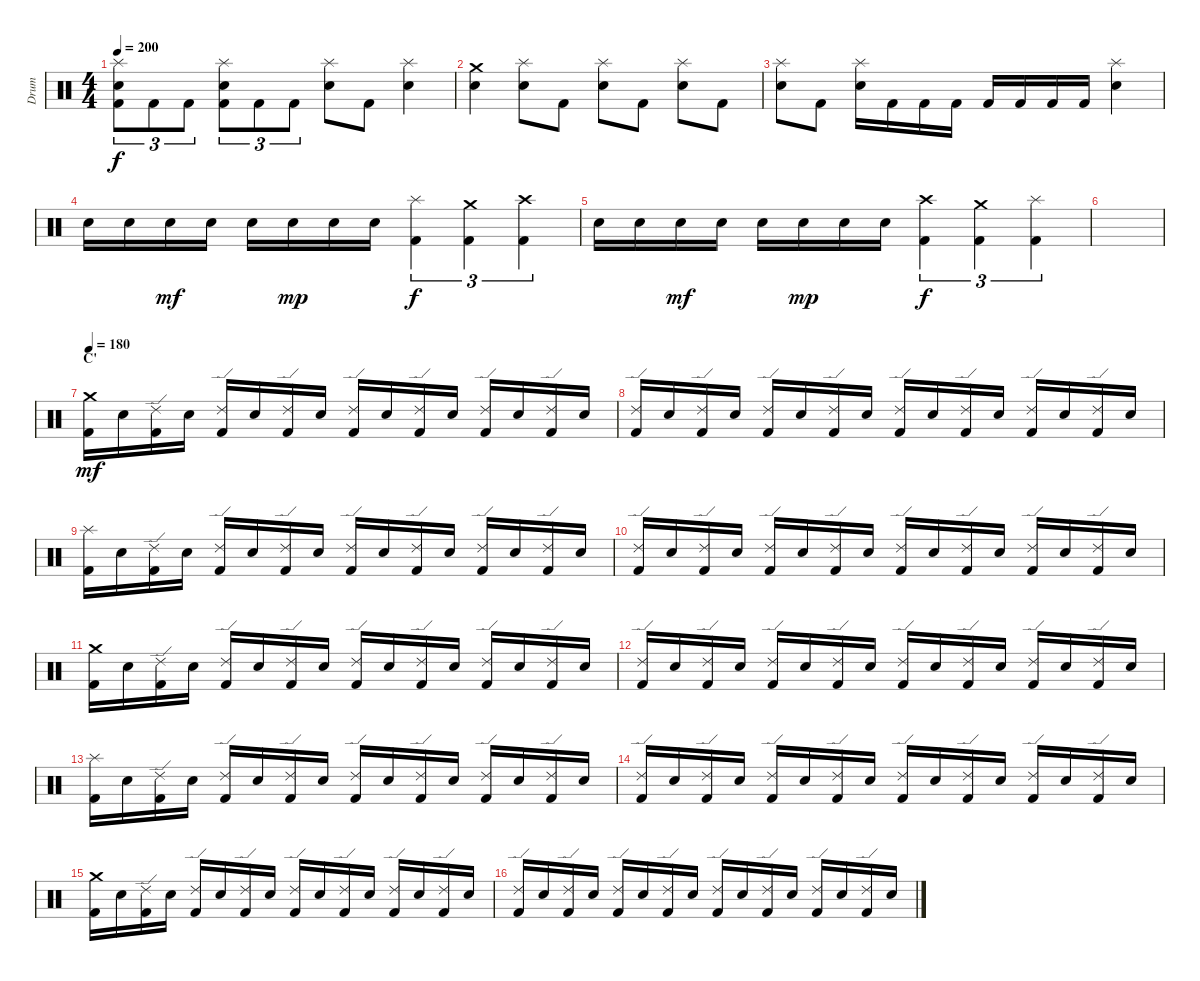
\track ("Drum" "Drum") {instrument percussion}
\staff {score}
\articulation defaults
\ts (4 4)
\tempo 200
\clef neutral
\ks c
("Splash (hit)" "Electric Snare (hit)" "Kick (hit) 2").8{tu (3 2) dy f} "Kick (hit) 2".8{tu (3 2)} "Kick (hit) 2".8{tu (3 2)} ("Splash (hit)" "Electric Snare (hit)" "Kick (hit) 2").8{tu (3 2)} "Kick (hit) 2".8{tu (3 2)} "Kick (hit) 2".8{tu (3 2)} ("Splash (hit)" "Electric Snare (hit)").8 "Kick (hit) 2".8 ("Splash (hit)" "Electric Snare (hit)").4 |
("Crash medium (hit)" "Electric Snare (hit)").4 ("Splash (hit)" "Electric Snare (hit)").8 "Kick (hit) 2".8 ("Splash (hit)" "Electric Snare (hit)").8 "Kick (hit) 2".8 ("Splash (hit)" "Electric Snare (hit)").8 "Kick (hit) 2".8 |
("Splash (hit)" "Electric Snare (hit)").8 "Kick (hit) 2".8 ("Splash (hit)" "Electric Snare (hit)").16 "Kick (hit) 2".16 "Kick (hit) 2".16 "Kick (hit) 2".16 "Kick (hit) 2".16 "Kick (hit) 2".16 "Kick (hit) 2".16 "Kick (hit) 2".16 ("Splash (hit)" "Electric Snare (hit)").4 |
"Electric Snare (hit)".16 "Electric Snare (hit)".16 "Electric Snare (hit)".16{dy mf} "Electric Snare (hit)".16 "Electric Snare (hit)".16 "Electric Snare (hit)".16{dy mp} "Electric Snare (hit)".16 "Electric Snare (hit)".16 ("Splash (hit)" "Kick (hit) 2").4{tu (3 2) dy f} ("Crash medium (hit)" "Kick (hit) 2").4{tu (3 2)} ("Crash high (hit)" "Kick (hit) 2").4{tu (3 2)} |
"Electric Snare (hit)".16 "Electric Snare (hit)".16 "Electric Snare (hit)".16{dy mf} "Electric Snare (hit)".16 "Electric Snare (hit)".16 "Electric Snare (hit)".16{dy mp} "Electric Snare (hit)".16 "Electric Snare (hit)".16 ("Crash high (hit)" "Kick (hit) 2").4{tu (3 2) dy f} ("Crash medium (hit)" "Kick (hit) 2").4{tu (3 2)} ("Splash (hit)" "Kick (hit) 2").4{tu (3 2)} |
|
\section ("" "C'")
\tempo 180
("Crash medium (hit)" "Kick (hit) 2").16{dy mf} "Electric Snare (hit)".16 ("Ride (edge) 2" "Kick (hit) 2").16 "Electric Snare (hit)".16 ("Ride (edge) 2" "Kick (hit) 2").16 "Electric Snare (hit)".16 ("Ride (edge) 2" "Kick (hit) 2").16 "Electric Snare (hit)".16 ("Ride (edge) 2" "Kick (hit) 2").16 "Electric Snare (hit)".16 ("Ride (edge) 2" "Kick (hit) 2").16 "Electric Snare (hit)".16 ("Ride (edge) 2" "Kick (hit) 2").16 "Electric Snare (hit)".16 ("Ride (edge) 2" "Kick (hit) 2").16 "Electric Snare (hit)".16 |
("Ride (edge) 2" "Kick (hit) 2").16 "Electric Snare (hit)".16 ("Ride (edge) 2" "Kick (hit) 2").16 "Electric Snare (hit)".16 ("Ride (edge) 2" "Kick (hit) 2").16 "Electric Snare (hit)".16 ("Ride (edge) 2" "Kick (hit) 2").16 "Electric Snare (hit)".16 ("Ride (edge) 2" "Kick (hit) 2").16 "Electric Snare (hit)".16 ("Ride (edge) 2" "Kick (hit) 2").16 "Electric Snare (hit)".16 ("Ride (edge) 2" "Kick (hit) 2").16 "Electric Snare (hit)".16 ("Ride (edge) 2" "Kick (hit) 2").16 "Electric Snare (hit)".16 |
("Splash (hit)" "Kick (hit) 2").16 "Electric Snare (hit)".16 ("Ride (edge) 2" "Kick (hit) 2").16 "Electric Snare (hit)".16 ("Ride (edge) 2" "Kick (hit) 2").16 "Electric Snare (hit)".16 ("Ride (edge) 2" "Kick (hit) 2").16 "Electric Snare (hit)".16 ("Ride (edge) 2" "Kick (hit) 2").16 "Electric Snare (hit)".16 ("Ride (edge) 2" "Kick (hit) 2").16 "Electric Snare (hit)".16 ("Ride (edge) 2" "Kick (hit) 2").16 "Electric Snare (hit)".16 ("Ride (edge) 2" "Kick (hit) 2").16 "Electric Snare (hit)".16 |
("Ride (edge) 2" "Kick (hit) 2").16 "Electric Snare (hit)".16 ("Ride (edge) 2" "Kick (hit) 2").16 "Electric Snare (hit)".16 ("Ride (edge) 2" "Kick (hit) 2").16 "Electric Snare (hit)".16 ("Ride (edge) 2" "Kick (hit) 2").16 "Electric Snare (hit)".16 ("Ride (edge) 2" "Kick (hit) 2").16 "Electric Snare (hit)".16 ("Ride (edge) 2" "Kick (hit) 2").16 "Electric Snare (hit)".16 ("Ride (edge) 2" "Kick (hit) 2").16 "Electric Snare (hit)".16 ("Ride (edge) 2" "Kick (hit) 2").16 "Electric Snare (hit)".16 |
("Crash medium (hit)" "Kick (hit) 2").16 "Electric Snare (hit)".16 ("Ride (edge) 2" "Kick (hit) 2").16 "Electric Snare (hit)".16 ("Ride (edge) 2" "Kick (hit) 2").16 "Electric Snare (hit)".16 ("Ride (edge) 2" "Kick (hit) 2").16 "Electric Snare (hit)".16 ("Ride (edge) 2" "Kick (hit) 2").16 "Electric Snare (hit)".16 ("Ride (edge) 2" "Kick (hit) 2").16 "Electric Snare (hit)".16 ("Ride (edge) 2" "Kick (hit) 2").16 "Electric Snare (hit)".16 ("Ride (edge) 2" "Kick (hit) 2").16 "Electric Snare (hit)".16 |
("Ride (edge) 2" "Kick (hit) 2").16 "Electric Snare (hit)".16 ("Ride (edge) 2" "Kick (hit) 2").16 "Electric Snare (hit)".16 ("Ride (edge) 2" "Kick (hit) 2").16 "Electric Snare (hit)".16 ("Ride (edge) 2" "Kick (hit) 2").16 "Electric Snare (hit)".16 ("Ride (edge) 2" "Kick (hit) 2").16 "Electric Snare (hit)".16 ("Ride (edge) 2" "Kick (hit) 2").16 "Electric Snare (hit)".16 ("Ride (edge) 2" "Kick (hit) 2").16 "Electric Snare (hit)".16 ("Ride (edge) 2" "Kick (hit) 2").16 "Electric Snare (hit)".16 |
("Splash (hit)" "Kick (hit) 2").16 "Electric Snare (hit)".16 ("Ride (edge) 2" "Kick (hit) 2").16 "Electric Snare (hit)".16 ("Ride (edge) 2" "Kick (hit) 2").16 "Electric Snare (hit)".16 ("Ride (edge) 2" "Kick (hit) 2").16 "Electric Snare (hit)".16 ("Ride (edge) 2" "Kick (hit) 2").16 "Electric Snare (hit)".16 ("Ride (edge) 2" "Kick (hit) 2").16 "Electric Snare (hit)".16 ("Ride (edge) 2" "Kick (hit) 2").16 "Electric Snare (hit)".16 ("Ride (edge) 2" "Kick (hit) 2").16 "Electric Snare (hit)".16 |
("Ride (edge) 2" "Kick (hit) 2").16 "Electric Snare (hit)".16 ("Ride (edge) 2" "Kick (hit) 2").16 "Electric Snare (hit)".16 ("Ride (edge) 2" "Kick (hit) 2").16 "Electric Snare (hit)".16 ("Ride (edge) 2" "Kick (hit) 2").16 "Electric Snare (hit)".16 ("Ride (edge) 2" "Kick (hit) 2").16 "Electric Snare (hit)".16 ("Ride (edge) 2" "Kick (hit) 2").16 "Electric Snare (hit)".16 ("Ride (edge) 2" "Kick (hit) 2").16 "Electric Snare (hit)".16 ("Ride (edge) 2" "Kick (hit) 2").16 "Electric Snare (hit)".16 |
("Crash medium (hit)" "Kick (hit) 2").16 "Electric Snare (hit)".16 ("Ride (edge) 2" "Kick (hit) 2").16 "Electric Snare (hit)".16 ("Ride (edge) 2" "Kick (hit) 2").16 "Electric Snare (hit)".16 ("Ride (edge) 2" "Kick (hit) 2").16 "Electric Snare (hit)".16 ("Ride (edge) 2" "Kick (hit) 2").16 "Electric Snare (hit)".16 ("Ride (edge) 2" "Kick (hit) 2").16 "Electric Snare (hit)".16 ("Ride (edge) 2" "Kick (hit) 2").16 "Electric Snare (hit)".16 ("Ride (edge) 2" "Kick (hit) 2").16 "Electric Snare (hit)".16 |
("Ride (edge) 2" "Kick (hit) 2").16 "Electric Snare (hit)".16 ("Ride (edge) 2" "Kick (hit) 2").16 "Electric Snare (hit)".16 ("Ride (edge) 2" "Kick (hit) 2").16 "Electric Snare (hit)".16 ("Ride (edge) 2" "Kick (hit) 2").16 "Electric Snare (hit)".16 ("Ride (edge) 2" "Kick (hit) 2").16 "Electric Snare (hit)".16 ("Ride (edge) 2" "Kick (hit) 2").16 "Electric Snare (hit)".16 ("Ride (edge) 2" "Kick (hit) 2").16 "Electric Snare (hit)".16 ("Ride (edge) 2" "Kick (hit) 2").16 "Electric Snare (hit)".16
